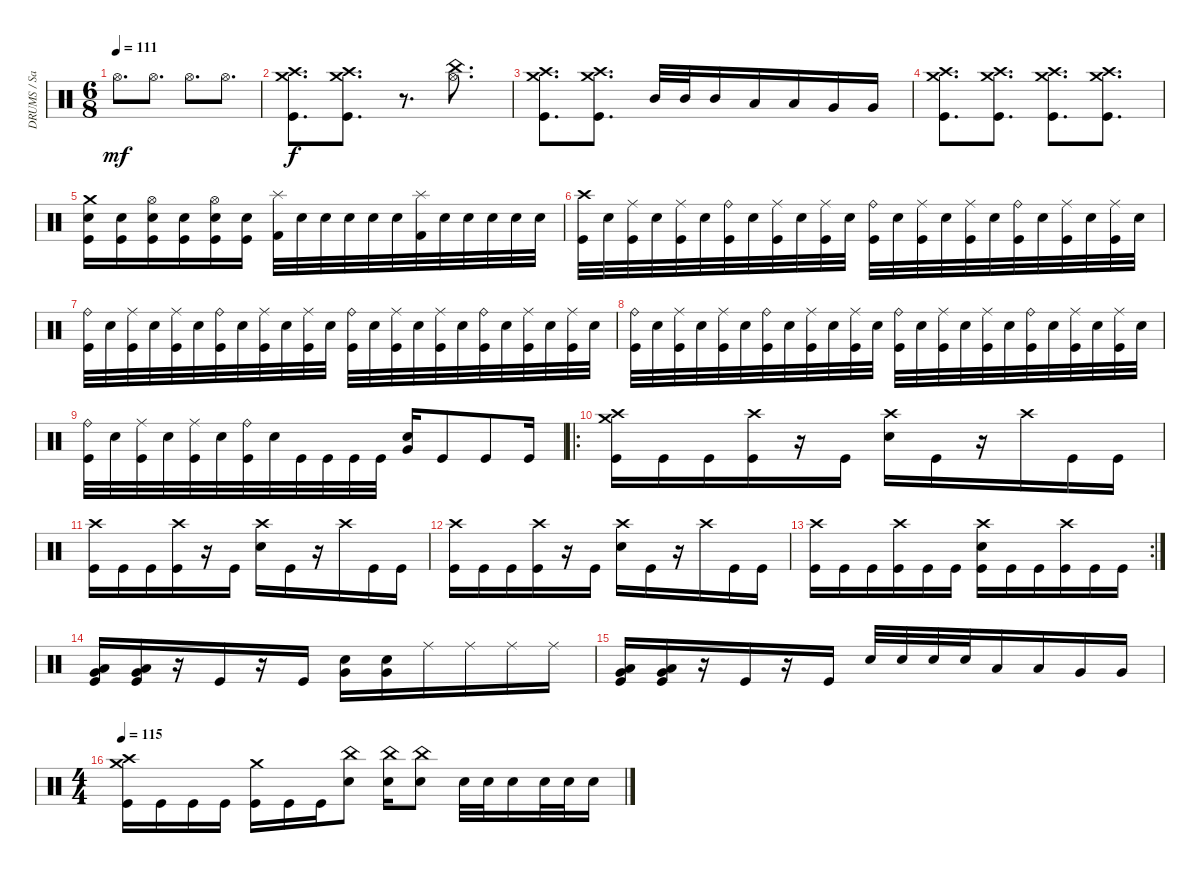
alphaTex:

\track ("DRUMS / Sasha" "DRUMS / Sa") {instrument percussion}
\staff {score}
\articulation defaults
\ts (6 8)
\tempo 111
\clef neutral
\ks c "Hi-Hat (open)".8{d dy mf} "Hi-Hat (open)".8{d} "Hi-Hat (open)".8{d} "Hi-Hat (open)".8{d}
|
("Kick (hit)" "Crash high (hit)" "Crash medium (hit)").8{d dy f} ("Kick (hit)" "Crash medium (hit)" "Crash high (hit)").8{d} r.8{d} ("Hi-Hat (open)" "China (hit)").8{d} |
("Kick (hit)" "Crash high (hit)" "Crash medium (hit)").8{d} ("Kick (hit)" "Crash medium (hit)" "Crash high (hit)").8{d} "Mid Tom (hit)".32 "Mid Tom (hit)".32 "Mid Tom (hit)".16 "Low Tom (hit)".16 "Low Tom (hit)".16 "Very Low Tom (hit)".16 "Very Low Tom (hit)".16 |
("Kick (hit)" "Crash high (hit)" "Crash medium (hit)").8{d} ("Kick (hit)" "Crash medium (hit)" "Crash high (hit)").8{d} ("Kick (hit)" "Crash medium (hit)" "Crash high (hit)").8{d} ("Kick (hit)" "Crash high (hit)" "Crash medium (hit)").8{d} |
("Kick (hit)" "Snare (hit) 2" "Crash medium (hit)").16 ("Snare (hit) 2" "Kick (hit)").16 ("Kick (hit)" "Hi-Hat (open)" "Snare (hit) 2").16 ("Snare (hit) 2" "Kick (hit)").16 ("Snare (hit) 2" "Kick (hit)" "Hi-Hat (open)").16 ("Snare (hit) 2" "Kick (hit)").16 ("Splash (hit)" "Kick (hit) 2").32 "Snare (hit) 2".32 "Snare (hit) 2".32 "Snare (hit) 2".32 "Snare (hit) 2".32 "Snare (hit) 2".32 ("Splash (hit)" "Kick (hit) 2").32 "Snare (hit) 2".32 "Snare (hit) 2".32 "Snare (hit) 2".32 "Snare (hit) 2".32 "Snare (hit) 2".32 |
("Kick (hit)" "Crash high (hit)").32 "Snare (hit) 2".32 ("Kick (hit)" "Ride (middle)").32 "Snare (hit) 2".32 ("Kick (hit)" "Ride (middle)").32 "Snare (hit) 2".32 ("Kick (hit)" "Ride (bell)").32 "Snare (hit) 2".32 ("Kick (hit)" "Ride (middle)").32 "Snare (hit) 2".32 ("Kick (hit)" "Ride (middle)").32 "Snare (hit) 2".32 ("Kick (hit)" "Ride (bell)").32 "Snare (hit) 2".32 ("Kick (hit)" "Ride (middle)").32 "Snare (hit) 2".32 ("Kick (hit)" "Ride (middle)").32 "Snare (hit) 2".32 ("Kick (hit)" "Ride (bell)").32 "Snare (hit) 2".32 ("Kick (hit)" "Ride (middle)").32 "Snare (hit) 2".32 ("Kick (hit)" "Ride (middle)").32 "Snare (hit) 2".32 |
("Kick (hit)" "Ride (bell)").32 "Snare (hit) 2".32 ("Kick (hit)" "Ride (middle)").32 "Snare (hit) 2".32 ("Kick (hit)" "Ride (middle)").32 "Snare (hit) 2".32 ("Kick (hit)" "Ride (bell)").32 "Snare (hit) 2".32 ("Kick (hit)" "Ride (middle)").32 "Snare (hit) 2".32 ("Kick (hit)" "Ride (middle)").32 "Snare (hit) 2".32 ("Kick (hit)" "Ride (bell)").32 "Snare (hit) 2".32 ("Kick (hit)" "Ride (middle)").32 "Snare (hit) 2".32 ("Kick (hit)" "Ride (middle)").32 "Snare (hit) 2".32 ("Kick (hit)" "Ride (bell)").32 "Snare (hit) 2".32 ("Kick (hit)" "Ride (middle)").32 "Snare (hit) 2".32 ("Kick (hit)" "Ride (middle)").32 "Snare (hit) 2".32 |
("Kick (hit)" "Ride (bell)").32 "Snare (hit) 2".32 ("Kick (hit)" "Ride (middle)").32 "Snare (hit) 2".32 ("Kick (hit)" "Ride (middle)").32 "Snare (hit) 2".32 ("Kick (hit)" "Ride (bell)").32 "Snare (hit) 2".32 ("Kick (hit)" "Ride (middle)").32 "Snare (hit) 2".32 ("Kick (hit)" "Ride (middle)").32 "Snare (hit) 2".32 ("Kick (hit)" "Ride (bell)").32 "Snare (hit) 2".32 ("Kick (hit)" "Ride (middle)").32 "Snare (hit) 2".32 ("Kick (hit)" "Ride (middle)").32 "Snare (hit) 2".32 ("Kick (hit)" "Ride (bell)").32 "Snare (hit) 2".32 ("Kick (hit)" "Ride (middle)").32 "Snare (hit) 2".32 ("Kick (hit)" "Ride (middle)").32 "Snare (hit) 2".32 |
("Kick (hit)" "Ride (bell)").32 "Snare (hit) 2".32 ("Kick (hit)" "Ride (middle)").32 "Snare (hit) 2".32 ("Kick (hit)" "Ride (middle)").32 "Snare (hit) 2".32 ("Kick (hit)" "Ride (bell)").32 "Snare (hit) 2".32 "Kick (hit)".32 "Kick (hit)".32 "Kick (hit)".32 "Kick (hit)".32 ("Snare (hit) 2" "Very Low Tom (hit)").16 "Kick (hit)".8 "Kick (hit)".8 "Kick (hit)".16 |
\ro
("Kick (hit)" "Crash high (hit)" "Crash medium (hit)").16 "Kick (hit)".16 "Kick (hit)".16 ("Kick (hit)" "Crash high (hit)").16 r.16 "Kick (hit)".16 ("Snare (hit) 2" "Crash high (hit)").16 "Kick (hit)".16 r.16 "Crash high (hit)".16 "Kick (hit)".16 "Kick (hit)".16 |
("Kick (hit)" "Crash high (hit)").16 "Kick (hit)".16 "Kick (hit)".16 ("Kick (hit)" "Crash high (hit)").16 r.16 "Kick (hit)".16 ("Snare (hit) 2" "Crash high (hit)").16 "Kick (hit)".16 r.16 "Crash high (hit)".16 "Kick (hit)".16 "Kick (hit)".16 |
("Kick (hit)" "Crash high (hit)").16 "Kick (hit)".16 "Kick (hit)".16 ("Kick (hit)" "Crash high (hit)").16 r.16 "Kick (hit)".16 ("Snare (hit) 2" "Crash high (hit)").16 "Kick (hit)".16 r.16 "Crash high (hit)".16 "Kick (hit)".16 "Kick (hit)".16 |
\rc 2
("Kick (hit)" "Crash high (hit)").16 "Kick (hit)".16 "Kick (hit)".16 ("Kick (hit)" "Crash high (hit)").16 "Kick (hit)".16 "Kick (hit)".16 ("Snare (hit) 2" "Crash high (hit)" "Kick (hit)").16 "Kick (hit)".16 "Kick (hit)".16 ("Crash high (hit)" "Kick (hit)").16 "Kick (hit)".16 "Kick (hit)".16 |
("Kick (hit)" "Low Tom (hit)" "Very Low Tom (hit)").16 ("Kick (hit)" "Low Tom (hit)" "Very Low Tom (hit)").16 r.16 "Kick (hit)".16 r.16 "Kick (hit)".16 ("Snare (hit) 2" "Very Low Tom (hit)").16 ("Snare (hit) 2" "Very Low Tom (hit)").16 "Ride (middle)".16 "Ride (middle)".16 "Ride (middle)".16 "Ride (middle)".16 |
("Kick (hit)" "Low Tom (hit)" "Very Low Tom (hit)").16 ("Kick (hit)" "Low Tom (hit)" "Very Low Tom (hit)").16 r.16 "Kick (hit)".16 r.16 "Kick (hit)".16 "Electric Snare (hit)".32 "Electric Snare (hit)".32 "Electric Snare (hit)".32 "Electric Snare (hit)".32 "Low Tom (hit)".16 "Low Tom (hit)".16 "Very Low Tom (hit)".16 "Very Low Tom (hit)".16 |
\ts (4 4)
\tempo 115
("Crash high (hit)" "Kick (hit)" "Crash medium (hit)").16 "Kick (hit)".16 "Kick (hit)".16 "Kick (hit)".16 ("Crash medium (hit)" "Kick (hit)").16 "Kick (hit)".16 "Kick (hit)".16 ("China (hit)" "Electric Snare (hit)").8 ("China (hit)" "Electric Snare (hit)").16 ("China (hit)" "Electric Snare (hit)").8 "Snare (hit) 2".32 "Snare (hit) 2".32 "Snare (hit) 2".16 "Snare (hit) 2".32 "Snare (hit) 2".32 "Snare (hit) 2".16
